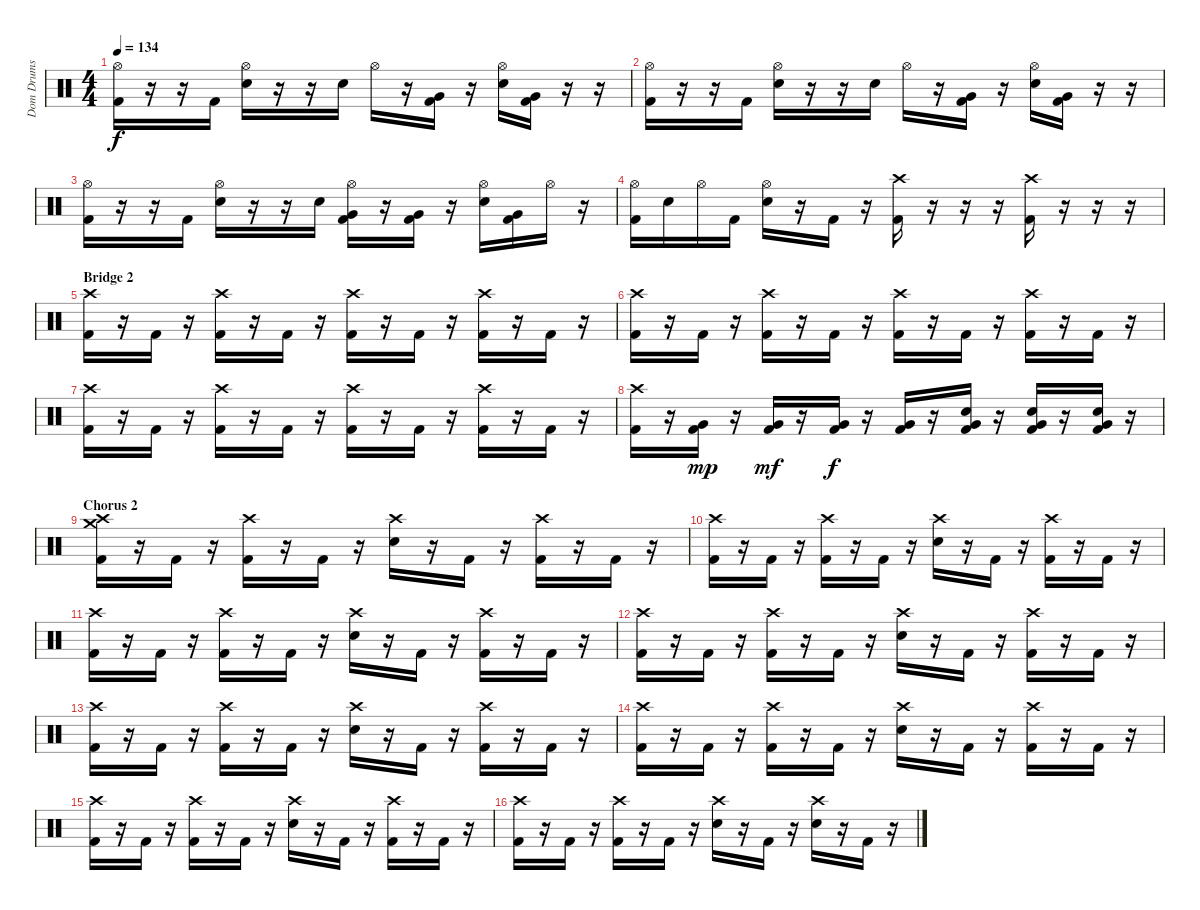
\track ("Dom Drums" "Dom Drums") {instrument percussion}
\staff {score}
\articulation defaults
\ts (4 4)
\tempo 134
\clef neutral
\ks c
("Hi-Hat (open)" "Kick (hit) 2").16{dy f} r.16 r.16 "Kick (hit) 2".16 ("Hi-Hat (open)" "Electric Snare (hit)").16 r.16 r.16 "Electric Snare (hit)".16 "Hi-Hat (open)".16 r.16 ("Very Low Tom (hit)" "Kick (hit) 2").16 r.16 ("Hi-Hat (open)" "Electric Snare (hit)").16 ("Very Low Tom (hit)" "Kick (hit) 2").16 r.16 r.16 |
("Hi-Hat (open)" "Kick (hit) 2").16 r.16 r.16 "Kick (hit) 2".16 ("Hi-Hat (open)" "Electric Snare (hit)").16 r.16 r.16 "Electric Snare (hit)".16 "Hi-Hat (open)".16 r.16 ("Very Low Tom (hit)" "Kick (hit) 2").16 r.16 ("Hi-Hat (open)" "Electric Snare (hit)").16 ("Very Low Tom (hit)" "Kick (hit) 2").16 r.16 r.16 |
("Hi-Hat (open)" "Kick (hit) 2").16 r.16 r.16 "Kick (hit) 2".16 ("Hi-Hat (open)" "Electric Snare (hit)").16 r.16 r.16 "Electric Snare (hit)".16 ("Hi-Hat (open)" "Very Low Tom (hit)" "Kick (hit) 2").16 r.16 ("Very Low Tom (hit)" "Kick (hit) 2").16 r.16 ("Hi-Hat (open)" "Electric Snare (hit)").16 ("Very Low Tom (hit)" "Kick (hit) 2").16 "Hi-Hat (open)".16 r.16 |
("Hi-Hat (open)" "Kick (hit) 2").16 "Electric Snare (hit)".16 "Hi-Hat (open)".16 "Kick (hit) 2".16 ("Hi-Hat (open)" "Electric Snare (hit)").16 r.16 "Kick (hit) 2".16 r.16 ("Crash high (hit)" "Kick (hit) 2").16 r.16 r.16 r.16 ("Crash high (hit)" "Kick (hit) 2").16 r.16 r.16 r.16 |
\section ("" "Bridge 2")
("Crash high (hit)" "Kick (hit) 2").16 r.16 "Kick (hit) 2".16 r.16 ("Crash high (hit)" "Kick (hit) 2").16 r.16 "Kick (hit) 2".16 r.16 ("Crash high (hit)" "Kick (hit) 2").16 r.16 "Kick (hit) 2".16 r.16 ("Crash high (hit)" "Kick (hit) 2").16 r.16 "Kick (hit) 2".16 r.16 |
("Crash high (hit)" "Kick (hit) 2").16 r.16 "Kick (hit) 2".16 r.16 ("Crash high (hit)" "Kick (hit) 2").16 r.16 "Kick (hit) 2".16 r.16 ("Crash high (hit)" "Kick (hit) 2").16 r.16 "Kick (hit) 2".16 r.16 ("Crash high (hit)" "Kick (hit) 2").16 r.16 "Kick (hit) 2".16 r.16 |
("Crash high (hit)" "Kick (hit) 2").16 r.16 "Kick (hit) 2".16 r.16 ("Crash high (hit)" "Kick (hit) 2").16 r.16 "Kick (hit) 2".16 r.16 ("Crash high (hit)" "Kick (hit) 2").16 r.16 "Kick (hit) 2".16 r.16 ("Crash high (hit)" "Kick (hit) 2").16 r.16 "Kick (hit) 2".16 r.16 |
("Crash high (hit)" "Kick (hit) 2").16 r.16 ("Very Low Tom (hit)" "Kick (hit) 2").16{dy mp} r.16 ("Very Low Tom (hit)" "Kick (hit) 2").16{dy mf} r.16 ("Very Low Tom (hit)" "Kick (hit) 2").16{dy f} r.16 ("Very Low Tom (hit)" "Kick (hit) 2").16 r.16 ("Electric Snare (hit)" "Very Low Tom (hit)" "Kick (hit) 2").16 r.16 ("Electric Snare (hit)" "Very Low Tom (hit)" "Kick (hit) 2").16 r.16 ("Electric Snare (hit)" "Very Low Tom (hit)" "Kick (hit) 2").16 r.16 |
\section ("" "Chorus 2")
("Crash high (hit)" "Crash medium (hit)" "Kick (hit) 2").16 r.16 "Kick (hit) 2".16 r.16 ("Crash high (hit)" "Kick (hit) 2").16 r.16 "Kick (hit) 2".16 r.16 ("Crash high (hit)" "Electric Snare (hit)").16 r.16 "Kick (hit) 2".16 r.16 ("Crash high (hit)" "Kick (hit) 2").16 r.16 "Kick (hit) 2".16 r.16 |
("Crash high (hit)" "Kick (hit) 2").16 r.16 "Kick (hit) 2".16 r.16 ("Crash high (hit)" "Kick (hit) 2").16 r.16 "Kick (hit) 2".16 r.16 ("Crash high (hit)" "Electric Snare (hit)").16 r.16 "Kick (hit) 2".16 r.16 ("Crash high (hit)" "Kick (hit) 2").16 r.16 "Kick (hit) 2".16 r.16 |
("Crash high (hit)" "Kick (hit) 2").16 r.16 "Kick (hit) 2".16 r.16 ("Crash high (hit)" "Kick (hit) 2").16 r.16 "Kick (hit) 2".16 r.16 ("Crash high (hit)" "Electric Snare (hit)").16 r.16 "Kick (hit) 2".16 r.16 ("Crash high (hit)" "Kick (hit) 2").16 r.16 "Kick (hit) 2".16 r.16 |
("Crash high (hit)" "Kick (hit) 2").16 r.16 "Kick (hit) 2".16 r.16 ("Crash high (hit)" "Kick (hit) 2").16 r.16 "Kick (hit) 2".16 r.16 ("Crash high (hit)" "Electric Snare (hit)").16 r.16 "Kick (hit) 2".16 r.16 ("Crash high (hit)" "Kick (hit) 2").16 r.16 "Kick (hit) 2".16 r.16 |
("Crash high (hit)" "Kick (hit) 2").16 r.16 "Kick (hit) 2".16 r.16 ("Crash high (hit)" "Kick (hit) 2").16 r.16 "Kick (hit) 2".16 r.16 ("Crash high (hit)" "Electric Snare (hit)").16 r.16 "Kick (hit) 2".16 r.16 ("Crash high (hit)" "Kick (hit) 2").16 r.16 "Kick (hit) 2".16 r.16 |
("Crash high (hit)" "Kick (hit) 2").16 r.16 "Kick (hit) 2".16 r.16 ("Crash high (hit)" "Kick (hit) 2").16 r.16 "Kick (hit) 2".16 r.16 ("Crash high (hit)" "Electric Snare (hit)").16 r.16 "Kick (hit) 2".16 r.16 ("Crash high (hit)" "Kick (hit) 2").16 r.16 "Kick (hit) 2".16 r.16 |
("Crash high (hit)" "Kick (hit) 2").16 r.16 "Kick (hit) 2".16 r.16 ("Crash high (hit)" "Kick (hit) 2").16 r.16 "Kick (hit) 2".16 r.16 ("Crash high (hit)" "Electric Snare (hit)").16 r.16 "Kick (hit) 2".16 r.16 ("Crash high (hit)" "Kick (hit) 2").16 r.16 "Kick (hit) 2".16 r.16 |
("Crash high (hit)" "Kick (hit) 2").16 r.16 "Kick (hit) 2".16 r.16 ("Crash high (hit)" "Kick (hit) 2").16 r.16 "Kick (hit) 2".16 r.16 ("Crash high (hit)" "Electric Snare (hit)").16 r.16 "Kick (hit) 2".16 r.16 ("Crash high (hit)" "Electric Snare (hit)").16 r.16 "Kick (hit) 2".16 r.16
